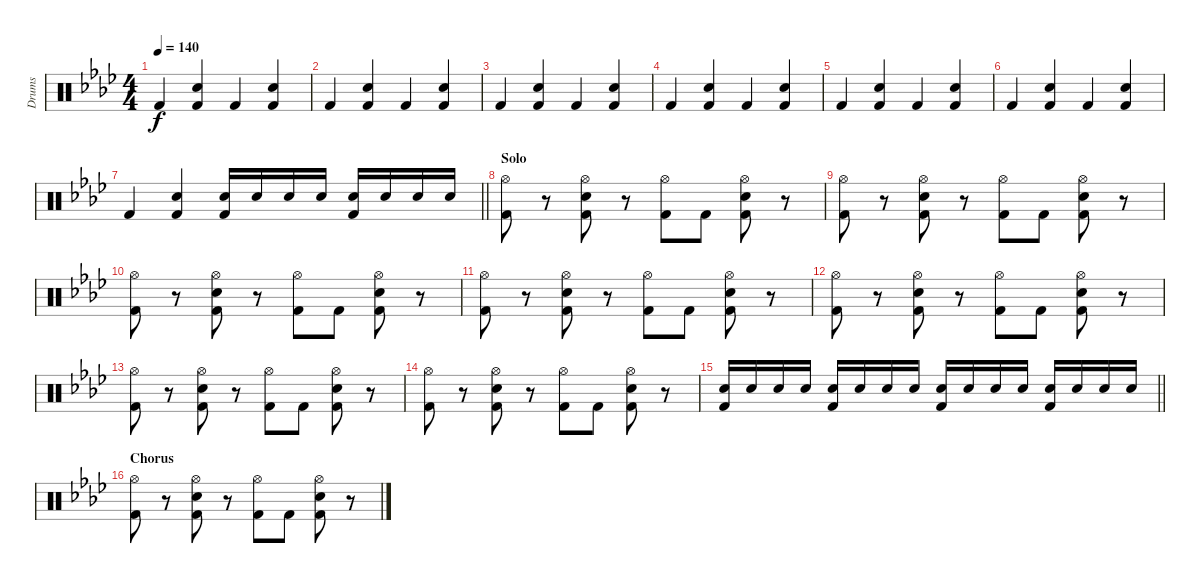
\track ("Drums" "Drums") {instrument percussion}
\staff {score}
\articulation defaults
\ts (4 4)
\tempo 140
\clef neutral
\ks ab "Kick (hit) 2".4{dy f}
("Electric Snare (hit)" "Kick (hit) 2").4 "Kick (hit) 2".4 ("Electric Snare (hit)" "Kick (hit) 2").4 |
"Kick (hit) 2".4 ("Electric Snare (hit)" "Kick (hit) 2").4 "Kick (hit) 2".4 ("Electric Snare (hit)" "Kick (hit) 2").4 |
"Kick (hit) 2".4 ("Electric Snare (hit)" "Kick (hit) 2").4 "Kick (hit) 2".4 ("Electric Snare (hit)" "Kick (hit) 2").4 |
"Kick (hit) 2".4 ("Electric Snare (hit)" "Kick (hit) 2").4 "Kick (hit) 2".4 ("Electric Snare (hit)" "Kick (hit) 2").4 |
"Kick (hit) 2".4 ("Electric Snare (hit)" "Kick (hit) 2").4 "Kick (hit) 2".4 ("Electric Snare (hit)" "Kick (hit) 2").4 |
"Kick (hit) 2".4 ("Electric Snare (hit)" "Kick (hit) 2").4 "Kick (hit) 2".4 ("Electric Snare (hit)" "Kick (hit) 2").4 |
\barLineRight lightlight "Kick (hit) 2".4
("Electric Snare (hit)" "Kick (hit) 2").4 ("Electric Snare (hit)" "Kick (hit) 2").16 "Electric Snare (hit)".16 "Electric Snare (hit)".16 "Electric Snare (hit)".16 ("Electric Snare (hit)" "Kick (hit) 2").16 "Electric Snare (hit)".16 "Electric Snare (hit)".16 "Electric Snare (hit)".16 |
\section ("" "Solo")
("Hi-Hat (open)" "Kick (hit) 2").8 r.8 ("Hi-Hat (open)" "Electric Snare (hit)" "Kick (hit) 2").8 r.8 ("Hi-Hat (open)" "Kick (hit) 2").8 "Kick (hit) 2".8 ("Hi-Hat (open)" "Electric Snare (hit)" "Kick (hit) 2").8 r.8 |
("Hi-Hat (open)" "Kick (hit) 2").8 r.8 ("Hi-Hat (open)" "Electric Snare (hit)" "Kick (hit) 2").8 r.8 ("Hi-Hat (open)" "Kick (hit) 2").8 "Kick (hit) 2".8 ("Hi-Hat (open)" "Electric Snare (hit)" "Kick (hit) 2").8 r.8 |
("Hi-Hat (open)" "Kick (hit) 2").8 r.8 ("Hi-Hat (open)" "Electric Snare (hit)" "Kick (hit) 2").8 r.8 ("Hi-Hat (open)" "Kick (hit) 2").8 "Kick (hit) 2".8 ("Hi-Hat (open)" "Electric Snare (hit)" "Kick (hit) 2").8 r.8 |
("Hi-Hat (open)" "Kick (hit) 2").8 r.8 ("Hi-Hat (open)" "Electric Snare (hit)" "Kick (hit) 2").8 r.8 ("Hi-Hat (open)" "Kick (hit) 2").8 "Kick (hit) 2".8 ("Hi-Hat (open)" "Electric Snare (hit)" "Kick (hit) 2").8 r.8 |
("Hi-Hat (open)" "Kick (hit) 2").8 r.8 ("Hi-Hat (open)" "Electric Snare (hit)" "Kick (hit) 2").8 r.8 ("Hi-Hat (open)" "Kick (hit) 2").8 "Kick (hit) 2".8 ("Hi-Hat (open)" "Electric Snare (hit)" "Kick (hit) 2").8 r.8 |
("Hi-Hat (open)" "Kick (hit) 2").8 r.8 ("Hi-Hat (open)" "Electric Snare (hit)" "Kick (hit) 2").8 r.8 ("Hi-Hat (open)" "Kick (hit) 2").8 "Kick (hit) 2".8 ("Hi-Hat (open)" "Electric Snare (hit)" "Kick (hit) 2").8 r.8 |
("Hi-Hat (open)" "Kick (hit) 2").8 r.8 ("Hi-Hat (open)" "Electric Snare (hit)" "Kick (hit) 2").8 r.8 ("Hi-Hat (open)" "Kick (hit) 2").8 "Kick (hit) 2".8 ("Hi-Hat (open)" "Electric Snare (hit)" "Kick (hit) 2").8 r.8 |
\barLineRight lightlight
("Electric Snare (hit)" "Kick (hit) 2").16 "Electric Snare (hit)".16 "Electric Snare (hit)".16 "Electric Snare (hit)".16 ("Electric Snare (hit)" "Kick (hit) 2").16 "Electric Snare (hit)".16 "Electric Snare (hit)".16 "Electric Snare (hit)".16 ("Electric Snare (hit)" "Kick (hit) 2").16 "Electric Snare (hit)".16 "Electric Snare (hit)".16 "Electric Snare (hit)".16 ("Electric Snare (hit)" "Kick (hit) 2").16 "Electric Snare (hit)".16 "Electric Snare (hit)".16 "Electric Snare (hit)".16 |
\section ("" "Chorus")
("Hi-Hat (open)" "Kick (hit) 2").8 r.8 ("Hi-Hat (open)" "Electric Snare (hit)" "Kick (hit) 2").8 r.8 ("Hi-Hat (open)" "Kick (hit) 2").8 "Kick (hit) 2".8 ("Hi-Hat (open)" "Electric Snare (hit)" "Kick (hit) 2").8 r.8
